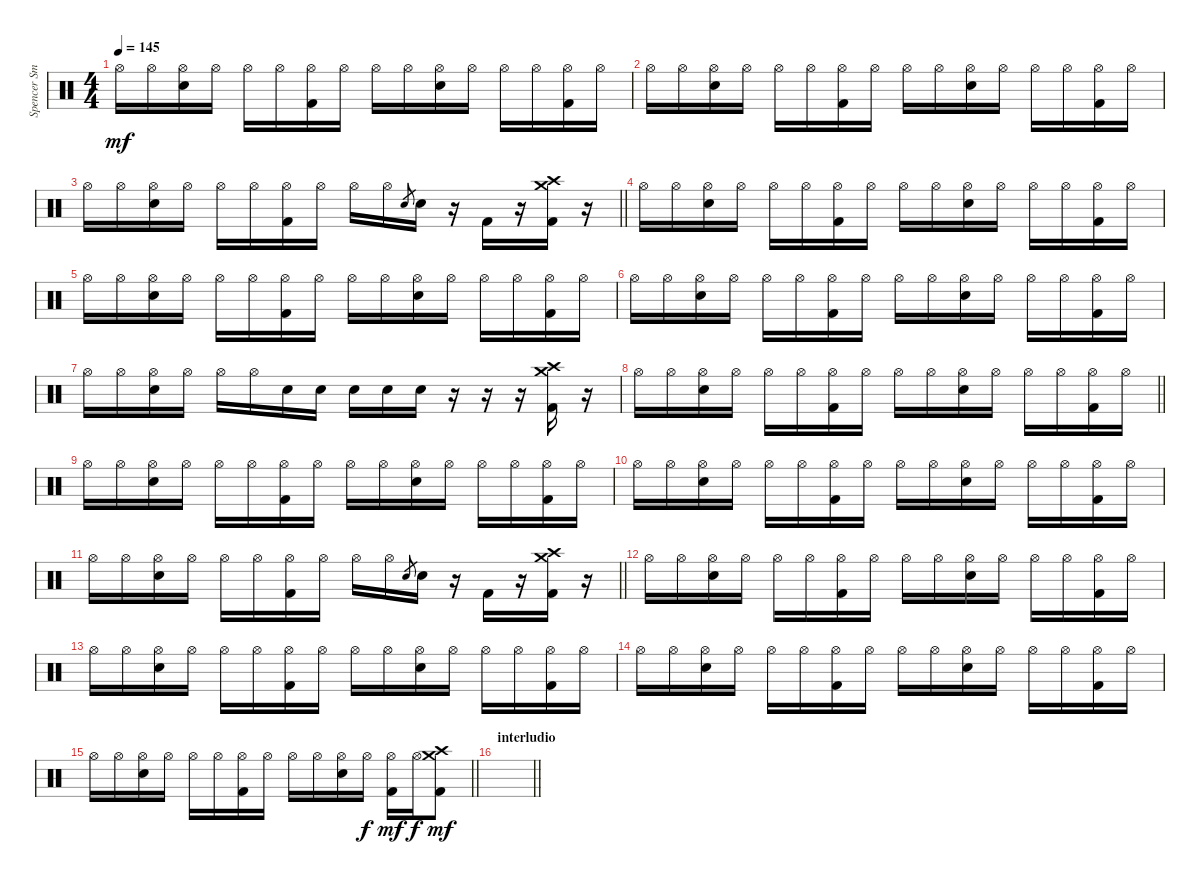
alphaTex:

\track ("Spencer Smith" "Spencer Sm") {instrument percussion}
\staff {score}
\articulation defaults
\ts (4 4)
\section ("" "")
\tempo 145
\clef neutral
\ks c "Hi-Hat (open)".16{dy mf} "Hi-Hat (open)".16
("Hi-Hat (open)" "Electric Snare (hit)").16 "Hi-Hat (open)".16 "Hi-Hat (open)".16 "Hi-Hat (open)".16 ("Hi-Hat (open)" "Kick (hit) 2").16 "Hi-Hat (open)".16 "Hi-Hat (open)".16 "Hi-Hat (open)".16 ("Hi-Hat (open)" "Electric Snare (hit)").16 "Hi-Hat (open)".16 "Hi-Hat (open)".16 "Hi-Hat (open)".16 ("Hi-Hat (open)" "Kick (hit) 2").16 "Hi-Hat (open)".16 |
"Hi-Hat (open)".16 "Hi-Hat (open)".16 ("Hi-Hat (open)" "Electric Snare (hit)").16 "Hi-Hat (open)".16 "Hi-Hat (open)".16 "Hi-Hat (open)".16 ("Hi-Hat (open)" "Kick (hit) 2").16 "Hi-Hat (open)".16 "Hi-Hat (open)".16 "Hi-Hat (open)".16 ("Hi-Hat (open)" "Electric Snare (hit)").16 "Hi-Hat (open)".16 "Hi-Hat (open)".16 "Hi-Hat (open)".16 ("Hi-Hat (open)" "Kick (hit) 2").16 "Hi-Hat (open)".16 |
\barLineRight lightlight "Hi-Hat (open)".16 "Hi-Hat (open)".16
("Hi-Hat (open)" "Electric Snare (hit)").16 "Hi-Hat (open)".16 "Hi-Hat (open)".16 "Hi-Hat (open)".16 ("Hi-Hat (open)" "Kick (hit) 2").16 "Hi-Hat (open)".16 "Hi-Hat (open)".16 "Hi-Hat (open)".16 "Electric Snare (hit)".8{gr} "Electric Snare (hit)".16 r.16 "Kick (hit) 2".16 r.16 ("Crash medium (hit)" "Crash high (hit)" "Kick (hit) 2").16 r.16 |
"Hi-Hat (open)".16 "Hi-Hat (open)".16 ("Hi-Hat (open)" "Electric Snare (hit)").16 "Hi-Hat (open)".16 "Hi-Hat (open)".16 "Hi-Hat (open)".16 ("Hi-Hat (open)" "Kick (hit) 2").16 "Hi-Hat (open)".16 "Hi-Hat (open)".16 "Hi-Hat (open)".16 ("Hi-Hat (open)" "Electric Snare (hit)").16 "Hi-Hat (open)".16 "Hi-Hat (open)".16 "Hi-Hat (open)".16 ("Hi-Hat (open)" "Kick (hit) 2").16 "Hi-Hat (open)".16 |
"Hi-Hat (open)".16 "Hi-Hat (open)".16 ("Hi-Hat (open)" "Electric Snare (hit)").16 "Hi-Hat (open)".16 "Hi-Hat (open)".16 "Hi-Hat (open)".16 ("Hi-Hat (open)" "Kick (hit) 2").16 "Hi-Hat (open)".16 "Hi-Hat (open)".16 "Hi-Hat (open)".16 ("Hi-Hat (open)" "Electric Snare (hit)").16 "Hi-Hat (open)".16 "Hi-Hat (open)".16 "Hi-Hat (open)".16 ("Hi-Hat (open)" "Kick (hit) 2").16 "Hi-Hat (open)".16 |
"Hi-Hat (open)".16 "Hi-Hat (open)".16 ("Hi-Hat (open)" "Electric Snare (hit)").16 "Hi-Hat (open)".16 "Hi-Hat (open)".16 "Hi-Hat (open)".16 ("Hi-Hat (open)" "Kick (hit) 2").16 "Hi-Hat (open)".16 "Hi-Hat (open)".16 "Hi-Hat (open)".16 ("Hi-Hat (open)" "Electric Snare (hit)").16 "Hi-Hat (open)".16 "Hi-Hat (open)".16 "Hi-Hat (open)".16 ("Hi-Hat (open)" "Kick (hit) 2").16 "Hi-Hat (open)".16 |
"Hi-Hat (open)".16 "Hi-Hat (open)".16 ("Hi-Hat (open)" "Electric Snare (hit)").16 "Hi-Hat (open)".16 "Hi-Hat (open)".16 "Hi-Hat (open)".16 "Electric Snare (hit)".16 "Electric Snare (hit)".16 "Electric Snare (hit)".16 "Electric Snare (hit)".16 "Electric Snare (hit)".16 r.16 r.16 r.16 ("Crash medium (hit)" "Crash high (hit)" "Kick (hit) 2").16 r.16 |
\barLineRight lightlight "Hi-Hat (open)".16 "Hi-Hat (open)".16
("Hi-Hat (open)" "Electric Snare (hit)").16 "Hi-Hat (open)".16 "Hi-Hat (open)".16 "Hi-Hat (open)".16 ("Hi-Hat (open)" "Kick (hit) 2").16 "Hi-Hat (open)".16 "Hi-Hat (open)".16 "Hi-Hat (open)".16 ("Hi-Hat (open)" "Electric Snare (hit)").16 "Hi-Hat (open)".16 "Hi-Hat (open)".16 "Hi-Hat (open)".16 ("Hi-Hat (open)" "Kick (hit) 2").16 "Hi-Hat (open)".16 |
"Hi-Hat (open)".16 "Hi-Hat (open)".16 ("Hi-Hat (open)" "Electric Snare (hit)").16 "Hi-Hat (open)".16 "Hi-Hat (open)".16 "Hi-Hat (open)".16 ("Hi-Hat (open)" "Kick (hit) 2").16 "Hi-Hat (open)".16 "Hi-Hat (open)".16 "Hi-Hat (open)".16 ("Hi-Hat (open)" "Electric Snare (hit)").16 "Hi-Hat (open)".16 "Hi-Hat (open)".16 "Hi-Hat (open)".16 ("Hi-Hat (open)" "Kick (hit) 2").16 "Hi-Hat (open)".16 |
"Hi-Hat (open)".16 "Hi-Hat (open)".16 ("Hi-Hat (open)" "Electric Snare (hit)").16 "Hi-Hat (open)".16 "Hi-Hat (open)".16 "Hi-Hat (open)".16 ("Hi-Hat (open)" "Kick (hit) 2").16 "Hi-Hat (open)".16 "Hi-Hat (open)".16 "Hi-Hat (open)".16 ("Hi-Hat (open)" "Electric Snare (hit)").16 "Hi-Hat (open)".16 "Hi-Hat (open)".16 "Hi-Hat (open)".16 ("Hi-Hat (open)" "Kick (hit) 2").16 "Hi-Hat (open)".16 |
\barLineRight lightlight "Hi-Hat (open)".16 "Hi-Hat (open)".16
("Hi-Hat (open)" "Electric Snare (hit)").16 "Hi-Hat (open)".16 "Hi-Hat (open)".16 "Hi-Hat (open)".16 ("Hi-Hat (open)" "Kick (hit) 2").16 "Hi-Hat (open)".16 "Hi-Hat (open)".16 "Hi-Hat (open)".16 "Electric Snare (hit)".8{gr} "Electric Snare (hit)".16 r.16 "Kick (hit) 2".16 r.16 ("Crash medium (hit)" "Crash high (hit)" "Kick (hit) 2").16 r.16 |
"Hi-Hat (open)".16 "Hi-Hat (open)".16 ("Hi-Hat (open)" "Electric Snare (hit)").16 "Hi-Hat (open)".16 "Hi-Hat (open)".16 "Hi-Hat (open)".16 ("Hi-Hat (open)" "Kick (hit) 2").16 "Hi-Hat (open)".16 "Hi-Hat (open)".16 "Hi-Hat (open)".16 ("Hi-Hat (open)" "Electric Snare (hit)").16 "Hi-Hat (open)".16 "Hi-Hat (open)".16 "Hi-Hat (open)".16 ("Hi-Hat (open)" "Kick (hit) 2").16 "Hi-Hat (open)".16 |
"Hi-Hat (open)".16 "Hi-Hat (open)".16 ("Hi-Hat (open)" "Electric Snare (hit)").16 "Hi-Hat (open)".16 "Hi-Hat (open)".16 "Hi-Hat (open)".16 ("Hi-Hat (open)" "Kick (hit) 2").16 "Hi-Hat (open)".16 "Hi-Hat (open)".16 "Hi-Hat (open)".16 ("Hi-Hat (open)" "Electric Snare (hit)").16 "Hi-Hat (open)".16 "Hi-Hat (open)".16 "Hi-Hat (open)".16 ("Hi-Hat (open)" "Kick (hit) 2").16 "Hi-Hat (open)".16 |
"Hi-Hat (open)".16 "Hi-Hat (open)".16 ("Hi-Hat (open)" "Electric Snare (hit)").16 "Hi-Hat (open)".16 "Hi-Hat (open)".16 "Hi-Hat (open)".16 ("Hi-Hat (open)" "Kick (hit) 2").16 "Hi-Hat (open)".16 "Hi-Hat (open)".16 "Hi-Hat (open)".16 ("Hi-Hat (open)" "Electric Snare (hit)").16 "Hi-Hat (open)".16 "Hi-Hat (open)".16 "Hi-Hat (open)".16 ("Hi-Hat (open)" "Kick (hit) 2").16 "Hi-Hat (open)".16 |
\barLineRight lightlight "Hi-Hat (open)".16 "Hi-Hat (open)".16
("Hi-Hat (open)" "Electric Snare (hit)").16 "Hi-Hat (open)".16 "Hi-Hat (open)".16 "Hi-Hat (open)".16 ("Hi-Hat (open)" "Kick (hit) 2").16 "Hi-Hat (open)".16 "Hi-Hat (open)".16 "Hi-Hat (open)".16 ("Hi-Hat (open)" "Electric Snare (hit)").16 "Hi-Hat (open)".16{dy f} ("Hi-Hat (open)" "Kick (hit) 2").16{dy mf} "Hi-Hat (open)".16{dy f} ("Crash high (hit)" "Crash medium (hit)" "Kick (hit) 2").8{dy mf} |
\section ("" "interludio")
\barLineRight lightlight
